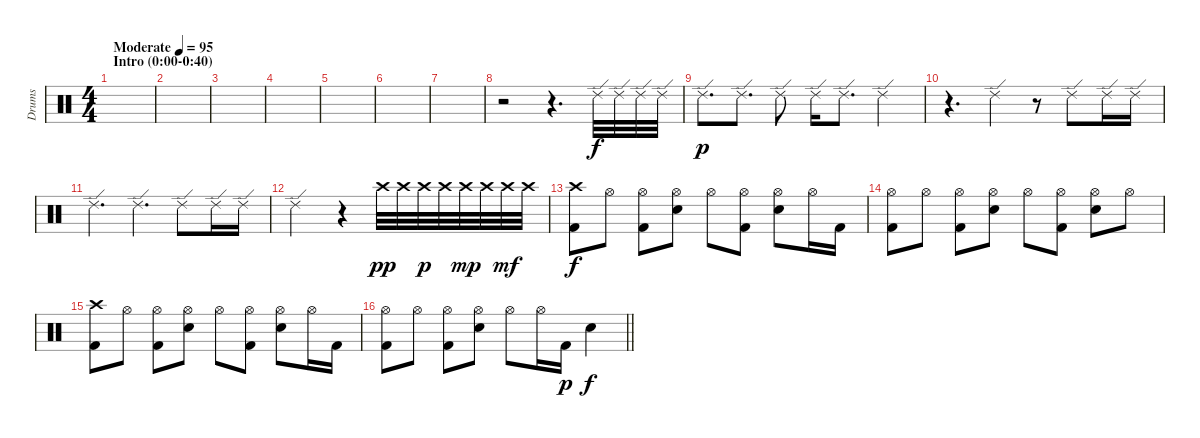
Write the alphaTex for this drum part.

\track ("Drums" "Drums") {instrument percussion}
\staff {score}
\articulation defaults
\ts (4 4)
\section ("" "Intro (0:00-0:40)")
\tempo (95 "Moderate")
\clef neutral
\ks c
|
|
|
|
|
|
|
r.2 r.4{d} "Ride (edge) 2".32 "Ride (edge) 2".32 "Ride (edge) 2".32 "Ride (edge) 2".32 |
"Ride (edge) 2".8{d dy p} "Ride (edge) 2".8{d} "Ride (edge) 2".8 "Ride (edge) 2".16 "Ride (edge) 2".8{d} "Ride (edge) 2".4 |
r.4{d} "Ride (edge) 2".4 r.8 "Ride (edge) 2".8 "Ride (edge) 2".16 "Ride (edge) 2".16 |
"Ride (edge) 2".4{d} "Ride (edge) 2".4{d} "Ride (edge) 2".8 "Ride (edge) 2".16 "Ride (edge) 2".16 |
"Ride (edge) 2".2 r.4 "Crash high (hit)".32{dy pp} "Crash high (hit)".32 "Crash high (hit)".32{dy p} "Crash high (hit)".32 "Crash high (hit)".32{dy mp} "Crash high (hit)".32 "Crash high (hit)".32{dy mf} "Crash high (hit)".32 |
("Kick (hit) 2" "Crash high (hit)").8{dy f} "Hi-Hat (open)".8 ("Hi-Hat (open)" "Kick (hit) 2").8 ("Hi-Hat (open)" "Snare (hit) 2").8 "Hi-Hat (open)".8 ("Hi-Hat (open)" "Kick (hit) 2").8 ("Hi-Hat (open)" "Snare (hit) 2").8 "Hi-Hat (open)".16 "Kick (hit) 2".16 |
("Kick (hit) 2" "Hi-Hat (open)").8 "Hi-Hat (open)".8 ("Hi-Hat (open)" "Kick (hit) 2").8 ("Hi-Hat (open)" "Snare (hit) 2").8 "Hi-Hat (open)".8 ("Hi-Hat (open)" "Kick (hit) 2").8 ("Hi-Hat (open)" "Snare (hit) 2").8 "Hi-Hat (open)".8 |
("Kick (hit) 2" "Crash high (hit)").8 "Hi-Hat (open)".8 ("Hi-Hat (open)" "Kick (hit) 2").8 ("Hi-Hat (open)" "Snare (hit) 2").8 "Hi-Hat (open)".8 ("Hi-Hat (open)" "Kick (hit) 2").8 ("Hi-Hat (open)" "Snare (hit) 2").8 "Hi-Hat (open)".16 "Kick (hit) 2".16 |
\barLineRight lightlight
("Kick (hit) 2" "Hi-Hat (open)").8 "Hi-Hat (open)".8 ("Hi-Hat (open)" "Kick (hit) 2").8 ("Hi-Hat (open)" "Snare (hit) 2").8 "Hi-Hat (open)".8 "Hi-Hat (open)".16 "Kick (hit) 2".16{dy p} "Snare (hit) 2".4{dy f}
